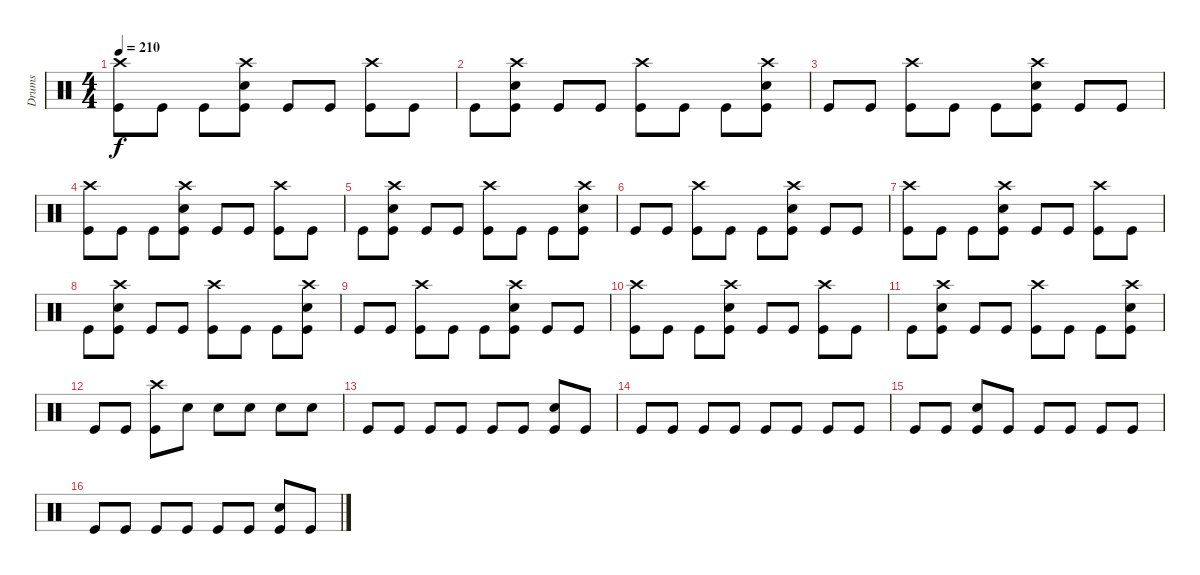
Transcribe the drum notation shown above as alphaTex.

\track ("Drums" "Drums") {instrument percussion}
\staff {score}
\articulation defaults
\ts (4 4)
\tempo 210
\clef neutral
\ks c
("Crash high (hit)" "Kick (hit)").8{dy f} "Kick (hit)".8 "Kick (hit)".8 ("Electric Snare (hit)" "Crash high (hit)" "Kick (hit)").8 "Kick (hit)".8 "Kick (hit)".8 ("Crash high (hit)" "Kick (hit)").8 "Kick (hit)".8 |
"Kick (hit)".8 ("Electric Snare (hit)" "Crash high (hit)" "Kick (hit)").8 "Kick (hit)".8 "Kick (hit)".8 ("Crash high (hit)" "Kick (hit)").8 "Kick (hit)".8 "Kick (hit)".8 ("Electric Snare (hit)" "Crash high (hit)" "Kick (hit)").8 |
"Kick (hit)".8 "Kick (hit)".8 ("Crash high (hit)" "Kick (hit)").8 "Kick (hit)".8 "Kick (hit)".8 ("Electric Snare (hit)" "Crash high (hit)" "Kick (hit)").8 "Kick (hit)".8 "Kick (hit)".8 |
("Crash high (hit)" "Kick (hit)").8 "Kick (hit)".8 "Kick (hit)".8 ("Electric Snare (hit)" "Crash high (hit)" "Kick (hit)").8 "Kick (hit)".8 "Kick (hit)".8 ("Crash high (hit)" "Kick (hit)").8 "Kick (hit)".8 |
"Kick (hit)".8 ("Electric Snare (hit)" "Crash high (hit)" "Kick (hit)").8 "Kick (hit)".8 "Kick (hit)".8 ("Crash high (hit)" "Kick (hit)").8 "Kick (hit)".8 "Kick (hit)".8 ("Electric Snare (hit)" "Crash high (hit)" "Kick (hit)").8 |
"Kick (hit)".8 "Kick (hit)".8 ("Crash high (hit)" "Kick (hit)").8 "Kick (hit)".8 "Kick (hit)".8 ("Electric Snare (hit)" "Crash high (hit)" "Kick (hit)").8 "Kick (hit)".8 "Kick (hit)".8 |
("Crash high (hit)" "Kick (hit)").8 "Kick (hit)".8 "Kick (hit)".8 ("Electric Snare (hit)" "Crash high (hit)" "Kick (hit)").8 "Kick (hit)".8 "Kick (hit)".8 ("Crash high (hit)" "Kick (hit)").8 "Kick (hit)".8 |
"Kick (hit)".8 ("Electric Snare (hit)" "Crash high (hit)" "Kick (hit)").8 "Kick (hit)".8 "Kick (hit)".8 ("Crash high (hit)" "Kick (hit)").8 "Kick (hit)".8 "Kick (hit)".8 ("Electric Snare (hit)" "Crash high (hit)" "Kick (hit)").8 |
"Kick (hit)".8 "Kick (hit)".8 ("Crash high (hit)" "Kick (hit)").8 "Kick (hit)".8 "Kick (hit)".8 ("Electric Snare (hit)" "Crash high (hit)" "Kick (hit)").8 "Kick (hit)".8 "Kick (hit)".8 |
("Crash high (hit)" "Kick (hit)").8 "Kick (hit)".8 "Kick (hit)".8 ("Electric Snare (hit)" "Crash high (hit)" "Kick (hit)").8 "Kick (hit)".8 "Kick (hit)".8 ("Crash high (hit)" "Kick (hit)").8 "Kick (hit)".8 |
"Kick (hit)".8 ("Electric Snare (hit)" "Crash high (hit)" "Kick (hit)").8 "Kick (hit)".8 "Kick (hit)".8 ("Crash high (hit)" "Kick (hit)").8 "Kick (hit)".8 "Kick (hit)".8 ("Electric Snare (hit)" "Crash high (hit)" "Kick (hit)").8 |
"Kick (hit)".8 "Kick (hit)".8 ("Crash high (hit)" "Kick (hit)").8 "Electric Snare (hit)".8 "Electric Snare (hit)".8 "Electric Snare (hit)".8 "Electric Snare (hit)".8 "Electric Snare (hit)".8 |
"Kick (hit)".8 "Kick (hit)".8 "Kick (hit)".8 "Kick (hit)".8 "Kick (hit)".8 "Kick (hit)".8 ("Electric Snare (hit)" "Kick (hit)").8 "Kick (hit)".8 |
"Kick (hit)".8 "Kick (hit)".8 "Kick (hit)".8 "Kick (hit)".8 "Kick (hit)".8 "Kick (hit)".8 "Kick (hit)".8 "Kick (hit)".8 |
"Kick (hit)".8 "Kick (hit)".8 ("Electric Snare (hit)" "Kick (hit)").8 "Kick (hit)".8 "Kick (hit)".8 "Kick (hit)".8 "Kick (hit)".8 "Kick (hit)".8 |
"Kick (hit)".8 "Kick (hit)".8 "Kick (hit)".8 "Kick (hit)".8 "Kick (hit)".8 "Kick (hit)".8 ("Electric Snare (hit)" "Kick (hit)").8 "Kick (hit)".8
